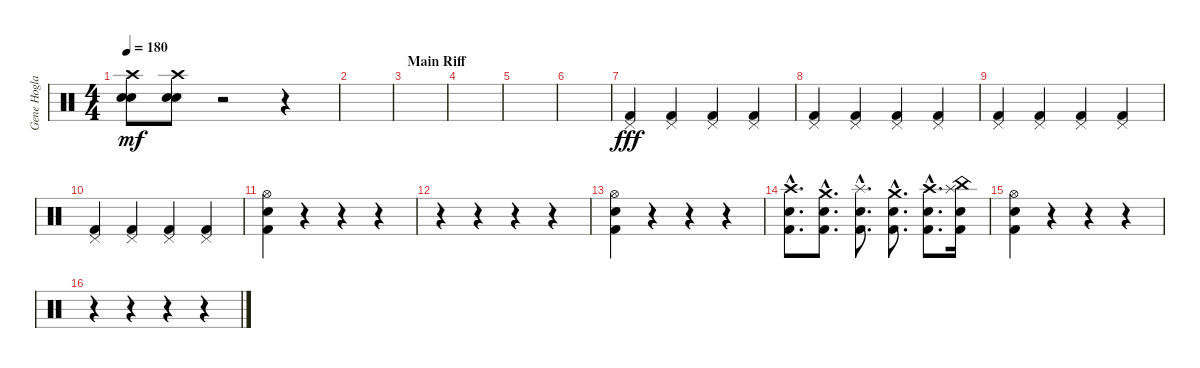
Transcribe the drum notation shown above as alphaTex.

\track ("Gene Hoglan" "Gene Hogla") {instrument percussion}
\staff {score}
\articulation defaults
\ts (4 4)
\tempo 180
\clef neutral
\ks c
("Crash high (hit)" "Electric Snare (hit)" "Snare (hit) 2").8{dy mf} ("Crash high (hit)" "Electric Snare (hit)" "Snare (hit) 2").8 r.2 r.4 |
|
\section ("" "Main Riff")
|
|
|
|
("Pedal Hi-Hat (hit)" "Kick (hit) 2").4{dy fff} ("Pedal Hi-Hat (hit)" "Kick (hit) 2").4 ("Pedal Hi-Hat (hit)" "Kick (hit) 2").4 ("Pedal Hi-Hat (hit)" "Kick (hit) 2").4 |
("Pedal Hi-Hat (hit)" "Kick (hit) 2").4 ("Pedal Hi-Hat (hit)" "Kick (hit) 2").4 ("Pedal Hi-Hat (hit)" "Kick (hit) 2").4 ("Pedal Hi-Hat (hit)" "Kick (hit) 2").4 |
("Pedal Hi-Hat (hit)" "Kick (hit) 2").4 ("Pedal Hi-Hat (hit)" "Kick (hit) 2").4 ("Pedal Hi-Hat (hit)" "Kick (hit) 2").4 ("Pedal Hi-Hat (hit)" "Kick (hit) 2").4 |
("Pedal Hi-Hat (hit)" "Kick (hit) 2").4 ("Pedal Hi-Hat (hit)" "Kick (hit) 2").4 ("Pedal Hi-Hat (hit)" "Kick (hit) 2").4 ("Pedal Hi-Hat (hit)" "Kick (hit) 2").4 |
("Hi-Hat (open)" "Snare (hit) 2" "Kick (hit) 2").4 r.4 r.4 r.4 |
r.4 r.4 r.4 r.4 |
("Snare (hit) 2" "Hi-Hat (open)" "Kick (hit) 2").4 r.4 r.4 r.4 |
("Crash high (hit)"{hac} "Snare (hit) 2"{hac} "Kick (hit) 2"{hac}).8{d} ("Crash medium (hit)"{hac} "Snare (hit) 2"{hac} "Kick (hit) 2"{hac}).8{d} ("Splash (hit)"{hac} "Snare (hit) 2"{hac} "Kick (hit) 2"{hac}).8{d} ("Crash medium (hit)"{hac} "Snare (hit) 2"{hac} "Kick (hit) 2"{hac}).8{d} ("Crash high (hit)"{hac} "Snare (hit) 2"{hac} "Kick (hit) 2"{hac}).8{d} ("China (hit)" "Splash (hit)" "Snare (hit) 2" "Kick (hit) 2").16 |
("Snare (hit) 2" "Hi-Hat (open)" "Kick (hit) 2").4 r.4 r.4 r.4 |
r.4 r.4 r.4 r.4
